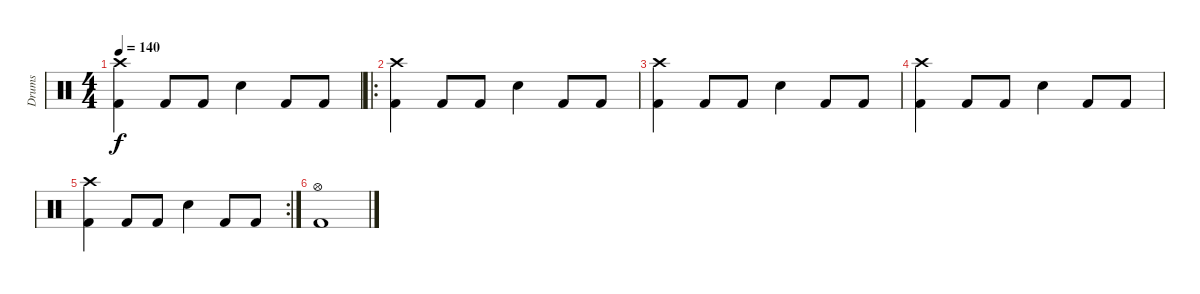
\track ("Drums" "Drums") {instrument percussion}
\staff {score}
\articulation defaults
\ts (4 4)
\tempo 140
\clef neutral
\ks c
("Crash high (hit)" "Kick (hit) 2").4{dy f} "Kick (hit) 2".8 "Kick (hit) 2".8 "Snare (hit) 2".4 "Kick (hit) 2".8 "Kick (hit) 2".8 |
\ro
("Crash high (hit)" "Kick (hit) 2").4 "Kick (hit) 2".8 "Kick (hit) 2".8 "Snare (hit) 2".4 "Kick (hit) 2".8 "Kick (hit) 2".8 |
("Crash high (hit)" "Kick (hit) 2").4 "Kick (hit) 2".8 "Kick (hit) 2".8 "Snare (hit) 2".4 "Kick (hit) 2".8 "Kick (hit) 2".8 |
("Crash high (hit)" "Kick (hit) 2").4 "Kick (hit) 2".8 "Kick (hit) 2".8 "Snare (hit) 2".4 "Kick (hit) 2".8 "Kick (hit) 2".8 |
\rc 2
("Crash high (hit)" "Kick (hit) 2").4 "Kick (hit) 2".8 "Kick (hit) 2".8 "Snare (hit) 2".4 "Kick (hit) 2".8 "Kick (hit) 2".8 |
("Hi-Hat (open)" "Kick (hit) 2").1
